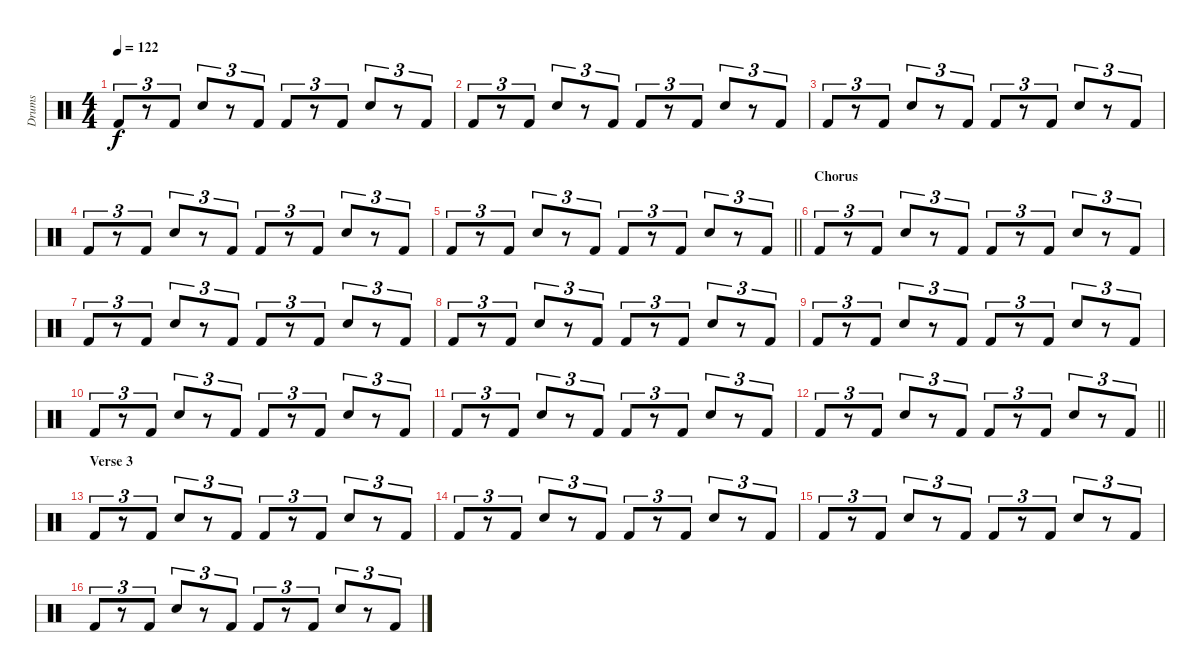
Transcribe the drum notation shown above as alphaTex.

\track ("Drums" "Drums") {instrument percussion}
\staff {score}
\articulation defaults
\ts (4 4)
\tempo 122
\clef neutral
\ks c "Kick (hit) 2".8{tu (3 2) dy f}
r.8{tu (3 2)} "Kick (hit) 2".8{tu (3 2)} "Snare (hit) 2".8{tu (3 2)} r.8{tu (3 2)} "Kick (hit) 2".8{tu (3 2)} "Kick (hit) 2".8{tu (3 2)} r.8{tu (3 2)} "Kick (hit) 2".8{tu (3 2)} "Snare (hit) 2".8{tu (3 2)} r.8{tu (3 2)} "Kick (hit) 2".8{tu (3 2)} |
"Kick (hit) 2".8{tu (3 2)} r.8{tu (3 2)} "Kick (hit) 2".8{tu (3 2)} "Snare (hit) 2".8{tu (3 2)} r.8{tu (3 2)} "Kick (hit) 2".8{tu (3 2)} "Kick (hit) 2".8{tu (3 2)} r.8{tu (3 2)} "Kick (hit) 2".8{tu (3 2)} "Snare (hit) 2".8{tu (3 2)} r.8{tu (3 2)} "Kick (hit) 2".8{tu (3 2)} |
"Kick (hit) 2".8{tu (3 2)} r.8{tu (3 2)} "Kick (hit) 2".8{tu (3 2)} "Snare (hit) 2".8{tu (3 2)} r.8{tu (3 2)} "Kick (hit) 2".8{tu (3 2)} "Kick (hit) 2".8{tu (3 2)} r.8{tu (3 2)} "Kick (hit) 2".8{tu (3 2)} "Snare (hit) 2".8{tu (3 2)} r.8{tu (3 2)} "Kick (hit) 2".8{tu (3 2)} |
"Kick (hit) 2".8{tu (3 2)} r.8{tu (3 2)} "Kick (hit) 2".8{tu (3 2)} "Snare (hit) 2".8{tu (3 2)} r.8{tu (3 2)} "Kick (hit) 2".8{tu (3 2)} "Kick (hit) 2".8{tu (3 2)} r.8{tu (3 2)} "Kick (hit) 2".8{tu (3 2)} "Snare (hit) 2".8{tu (3 2)} r.8{tu (3 2)} "Kick (hit) 2".8{tu (3 2)} |
\barLineRight lightlight "Kick (hit) 2".8{tu (3 2)}
r.8{tu (3 2)} "Kick (hit) 2".8{tu (3 2)} "Snare (hit) 2".8{tu (3 2)} r.8{tu (3 2)} "Kick (hit) 2".8{tu (3 2)} "Kick (hit) 2".8{tu (3 2)} r.8{tu (3 2)} "Kick (hit) 2".8{tu (3 2)} "Snare (hit) 2".8{tu (3 2)} r.8{tu (3 2)} "Kick (hit) 2".8{tu (3 2)} |
\section ("" "Chorus")
"Kick (hit) 2".8{tu (3 2)} r.8{tu (3 2)} "Kick (hit) 2".8{tu (3 2)} "Snare (hit) 2".8{tu (3 2)} r.8{tu (3 2)} "Kick (hit) 2".8{tu (3 2)} "Kick (hit) 2".8{tu (3 2)} r.8{tu (3 2)} "Kick (hit) 2".8{tu (3 2)} "Snare (hit) 2".8{tu (3 2)} r.8{tu (3 2)} "Kick (hit) 2".8{tu (3 2)} |
"Kick (hit) 2".8{tu (3 2)} r.8{tu (3 2)} "Kick (hit) 2".8{tu (3 2)} "Snare (hit) 2".8{tu (3 2)} r.8{tu (3 2)} "Kick (hit) 2".8{tu (3 2)} "Kick (hit) 2".8{tu (3 2)} r.8{tu (3 2)} "Kick (hit) 2".8{tu (3 2)} "Snare (hit) 2".8{tu (3 2)} r.8{tu (3 2)} "Kick (hit) 2".8{tu (3 2)} |
"Kick (hit) 2".8{tu (3 2)} r.8{tu (3 2)} "Kick (hit) 2".8{tu (3 2)} "Snare (hit) 2".8{tu (3 2)} r.8{tu (3 2)} "Kick (hit) 2".8{tu (3 2)} "Kick (hit) 2".8{tu (3 2)} r.8{tu (3 2)} "Kick (hit) 2".8{tu (3 2)} "Snare (hit) 2".8{tu (3 2)} r.8{tu (3 2)} "Kick (hit) 2".8{tu (3 2)} |
"Kick (hit) 2".8{tu (3 2)} r.8{tu (3 2)} "Kick (hit) 2".8{tu (3 2)} "Snare (hit) 2".8{tu (3 2)} r.8{tu (3 2)} "Kick (hit) 2".8{tu (3 2)} "Kick (hit) 2".8{tu (3 2)} r.8{tu (3 2)} "Kick (hit) 2".8{tu (3 2)} "Snare (hit) 2".8{tu (3 2)} r.8{tu (3 2)} "Kick (hit) 2".8{tu (3 2)} |
"Kick (hit) 2".8{tu (3 2)} r.8{tu (3 2)} "Kick (hit) 2".8{tu (3 2)} "Snare (hit) 2".8{tu (3 2)} r.8{tu (3 2)} "Kick (hit) 2".8{tu (3 2)} "Kick (hit) 2".8{tu (3 2)} r.8{tu (3 2)} "Kick (hit) 2".8{tu (3 2)} "Snare (hit) 2".8{tu (3 2)} r.8{tu (3 2)} "Kick (hit) 2".8{tu (3 2)} |
"Kick (hit) 2".8{tu (3 2)} r.8{tu (3 2)} "Kick (hit) 2".8{tu (3 2)} "Snare (hit) 2".8{tu (3 2)} r.8{tu (3 2)} "Kick (hit) 2".8{tu (3 2)} "Kick (hit) 2".8{tu (3 2)} r.8{tu (3 2)} "Kick (hit) 2".8{tu (3 2)} "Snare (hit) 2".8{tu (3 2)} r.8{tu (3 2)} "Kick (hit) 2".8{tu (3 2)} |
\barLineRight lightlight "Kick (hit) 2".8{tu (3 2)}
r.8{tu (3 2)} "Kick (hit) 2".8{tu (3 2)} "Snare (hit) 2".8{tu (3 2)} r.8{tu (3 2)} "Kick (hit) 2".8{tu (3 2)} "Kick (hit) 2".8{tu (3 2)} r.8{tu (3 2)} "Kick (hit) 2".8{tu (3 2)} "Snare (hit) 2".8{tu (3 2)} r.8{tu (3 2)} "Kick (hit) 2".8{tu (3 2)} |
\section ("" "Verse 3")
"Kick (hit) 2".8{tu (3 2)} r.8{tu (3 2)} "Kick (hit) 2".8{tu (3 2)} "Snare (hit) 2".8{tu (3 2)} r.8{tu (3 2)} "Kick (hit) 2".8{tu (3 2)} "Kick (hit) 2".8{tu (3 2)} r.8{tu (3 2)} "Kick (hit) 2".8{tu (3 2)} "Snare (hit) 2".8{tu (3 2)} r.8{tu (3 2)} "Kick (hit) 2".8{tu (3 2)} |
"Kick (hit) 2".8{tu (3 2)} r.8{tu (3 2)} "Kick (hit) 2".8{tu (3 2)} "Snare (hit) 2".8{tu (3 2)} r.8{tu (3 2)} "Kick (hit) 2".8{tu (3 2)} "Kick (hit) 2".8{tu (3 2)} r.8{tu (3 2)} "Kick (hit) 2".8{tu (3 2)} "Snare (hit) 2".8{tu (3 2)} r.8{tu (3 2)} "Kick (hit) 2".8{tu (3 2)} |
"Kick (hit) 2".8{tu (3 2)} r.8{tu (3 2)} "Kick (hit) 2".8{tu (3 2)} "Snare (hit) 2".8{tu (3 2)} r.8{tu (3 2)} "Kick (hit) 2".8{tu (3 2)} "Kick (hit) 2".8{tu (3 2)} r.8{tu (3 2)} "Kick (hit) 2".8{tu (3 2)} "Snare (hit) 2".8{tu (3 2)} r.8{tu (3 2)} "Kick (hit) 2".8{tu (3 2)} |
"Kick (hit) 2".8{tu (3 2)} r.8{tu (3 2)} "Kick (hit) 2".8{tu (3 2)} "Snare (hit) 2".8{tu (3 2)} r.8{tu (3 2)} "Kick (hit) 2".8{tu (3 2)} "Kick (hit) 2".8{tu (3 2)} r.8{tu (3 2)} "Kick (hit) 2".8{tu (3 2)} "Snare (hit) 2".8{tu (3 2)} r.8{tu (3 2)} "Kick (hit) 2".8{tu (3 2)}
